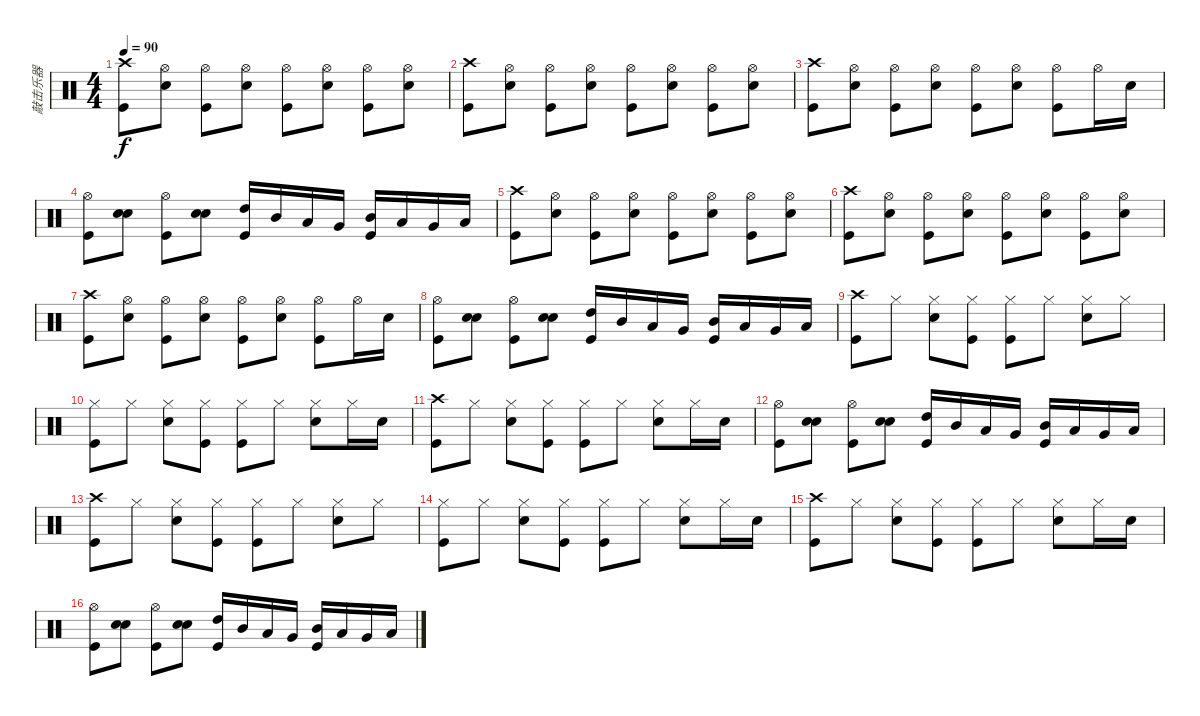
\track ("敲击乐器" "敲击乐器") {instrument percussion}
\staff {score}
\articulation defaults
\ts (4 4)
\tempo 90
\clef neutral
\ks c
("Kick (hit)" "Crash high (hit)").8{dy f} ("Snare (hit) 2" "Hi-Hat (open)").8 ("Kick (hit)" "Hi-Hat (open)").8 ("Snare (hit) 2" "Hi-Hat (open)").8 ("Kick (hit)" "Hi-Hat (open)").8 ("Snare (hit) 2" "Hi-Hat (open)").8 ("Kick (hit)" "Hi-Hat (open)").8 ("Snare (hit) 2" "Hi-Hat (open)").8 |
("Kick (hit)" "Crash high (hit)").8 ("Snare (hit) 2" "Hi-Hat (open)").8 ("Kick (hit)" "Hi-Hat (open)").8 ("Snare (hit) 2" "Hi-Hat (open)").8 ("Kick (hit)" "Hi-Hat (open)").8 ("Snare (hit) 2" "Hi-Hat (open)").8 ("Kick (hit)" "Hi-Hat (open)").8 ("Snare (hit) 2" "Hi-Hat (open)").8 |
("Kick (hit)" "Crash high (hit)").8 ("Snare (hit) 2" "Hi-Hat (open)").8 ("Kick (hit)" "Hi-Hat (open)").8 ("Snare (hit) 2" "Hi-Hat (open)").8 ("Kick (hit)" "Hi-Hat (open)").8 ("Snare (hit) 2" "Hi-Hat (open)").8 ("Kick (hit)" "Hi-Hat (open)").8 "Hi-Hat (open)".16 "Snare (hit) 2".16 |
("Hi-Hat (open)" "Kick (hit)").8 ("Snare (hit) 2" "Snare (hit) 2").8 ("Kick (hit)" "Hi-Hat (open)").8 ("Snare (hit) 2" "Snare (hit) 2").8 ("Kick (hit)" "High Tom (hit)").16 "Mid Tom (hit)".16 "Low Tom (hit)".16 "Very Low Tom (hit)".16 ("Kick (hit)" "Mid Tom (hit)").16 "Low Tom (hit)".16 "Very Low Tom (hit)".16 "Low Floor Tom (hit)".16 |
("Kick (hit)" "Crash high (hit)").8 ("Snare (hit) 2" "Hi-Hat (open)").8 ("Kick (hit)" "Hi-Hat (open)").8 ("Snare (hit) 2" "Hi-Hat (open)").8 ("Kick (hit)" "Hi-Hat (open)").8 ("Snare (hit) 2" "Hi-Hat (open)").8 ("Kick (hit)" "Hi-Hat (open)").8 ("Snare (hit) 2" "Hi-Hat (open)").8 |
("Kick (hit)" "Crash high (hit)").8 ("Snare (hit) 2" "Hi-Hat (open)").8 ("Kick (hit)" "Hi-Hat (open)").8 ("Snare (hit) 2" "Hi-Hat (open)").8 ("Kick (hit)" "Hi-Hat (open)").8 ("Snare (hit) 2" "Hi-Hat (open)").8 ("Kick (hit)" "Hi-Hat (open)").8 ("Snare (hit) 2" "Hi-Hat (open)").8 |
("Kick (hit)" "Crash high (hit)").8 ("Snare (hit) 2" "Hi-Hat (open)").8 ("Kick (hit)" "Hi-Hat (open)").8 ("Snare (hit) 2" "Hi-Hat (open)").8 ("Kick (hit)" "Hi-Hat (open)").8 ("Snare (hit) 2" "Hi-Hat (open)").8 ("Kick (hit)" "Hi-Hat (open)").8 "Hi-Hat (open)".16 "Snare (hit) 2".16 |
("Hi-Hat (open)" "Kick (hit)").8 ("Snare (hit) 2" "Snare (hit) 2").8 ("Kick (hit)" "Hi-Hat (open)").8 ("Snare (hit) 2" "Snare (hit) 2").8 ("Kick (hit)" "High Tom (hit)").16 "Mid Tom (hit)".16 "Low Tom (hit)".16 "Very Low Tom (hit)".16 ("Kick (hit)" "Mid Tom (hit)").16 "Low Tom (hit)".16 "Very Low Tom (hit)".16 "Low Floor Tom (hit)".16 |
("Kick (hit)" "Crash high (hit)").8 "Hi-Hat (closed)".8 ("Snare (hit) 2" "Hi-Hat (closed)").8 ("Kick (hit)" "Hi-Hat (closed)").8 ("Kick (hit)" "Hi-Hat (closed)").8 "Hi-Hat (closed)".8 ("Snare (hit) 2" "Hi-Hat (closed)").8 "Hi-Hat (closed)".8 |
("Kick (hit)" "Hi-Hat (closed)").8 "Hi-Hat (closed)".8 ("Snare (hit) 2" "Hi-Hat (closed)").8 ("Kick (hit)" "Hi-Hat (closed)").8 ("Kick (hit)" "Hi-Hat (closed)").8 "Hi-Hat (closed)".8 ("Snare (hit) 2" "Hi-Hat (closed)").8 "Hi-Hat (closed)".16 "Snare (hit) 2".16 |
("Kick (hit)" "Crash high (hit)").8 "Hi-Hat (closed)".8 ("Snare (hit) 2" "Hi-Hat (closed)").8 ("Kick (hit)" "Hi-Hat (closed)").8 ("Kick (hit)" "Hi-Hat (closed)").8 "Hi-Hat (closed)".8 ("Snare (hit) 2" "Hi-Hat (closed)").8 "Hi-Hat (closed)".16 "Snare (hit) 2".16 |
("Hi-Hat (open)" "Kick (hit)").8 ("Snare (hit) 2" "Snare (hit) 2").8 ("Kick (hit)" "Hi-Hat (open)").8 ("Snare (hit) 2" "Snare (hit) 2").8 ("Kick (hit)" "High Tom (hit)").16 "Mid Tom (hit)".16 "Low Tom (hit)".16 "Very Low Tom (hit)".16 ("Kick (hit)" "Mid Tom (hit)").16 "Low Tom (hit)".16 "Very Low Tom (hit)".16 "Low Floor Tom (hit)".16 |
("Kick (hit)" "Crash high (hit)").8 "Hi-Hat (closed)".8 ("Snare (hit) 2" "Hi-Hat (closed)").8 ("Kick (hit)" "Hi-Hat (closed)").8 ("Kick (hit)" "Hi-Hat (closed)").8 "Hi-Hat (closed)".8 ("Snare (hit) 2" "Hi-Hat (closed)").8 "Hi-Hat (closed)".8 |
("Kick (hit)" "Hi-Hat (closed)").8 "Hi-Hat (closed)".8 ("Snare (hit) 2" "Hi-Hat (closed)").8 ("Kick (hit)" "Hi-Hat (closed)").8 ("Kick (hit)" "Hi-Hat (closed)").8 "Hi-Hat (closed)".8 ("Snare (hit) 2" "Hi-Hat (closed)").8 "Hi-Hat (closed)".16 "Snare (hit) 2".16 |
("Kick (hit)" "Crash high (hit)").8 "Hi-Hat (closed)".8 ("Snare (hit) 2" "Hi-Hat (closed)").8 ("Kick (hit)" "Hi-Hat (closed)").8 ("Kick (hit)" "Hi-Hat (closed)").8 "Hi-Hat (closed)".8 ("Snare (hit) 2" "Hi-Hat (closed)").8 "Hi-Hat (closed)".16 "Snare (hit) 2".16 |
("Hi-Hat (open)" "Kick (hit)").8 ("Snare (hit) 2" "Snare (hit) 2").8 ("Kick (hit)" "Hi-Hat (open)").8 ("Snare (hit) 2" "Snare (hit) 2").8 ("Kick (hit)" "High Tom (hit)").16 "Mid Tom (hit)".16 "Low Tom (hit)".16 "Very Low Tom (hit)".16 ("Kick (hit)" "Mid Tom (hit)").16 "Low Tom (hit)".16 "Very Low Tom (hit)".16 "Low Floor Tom (hit)".16
